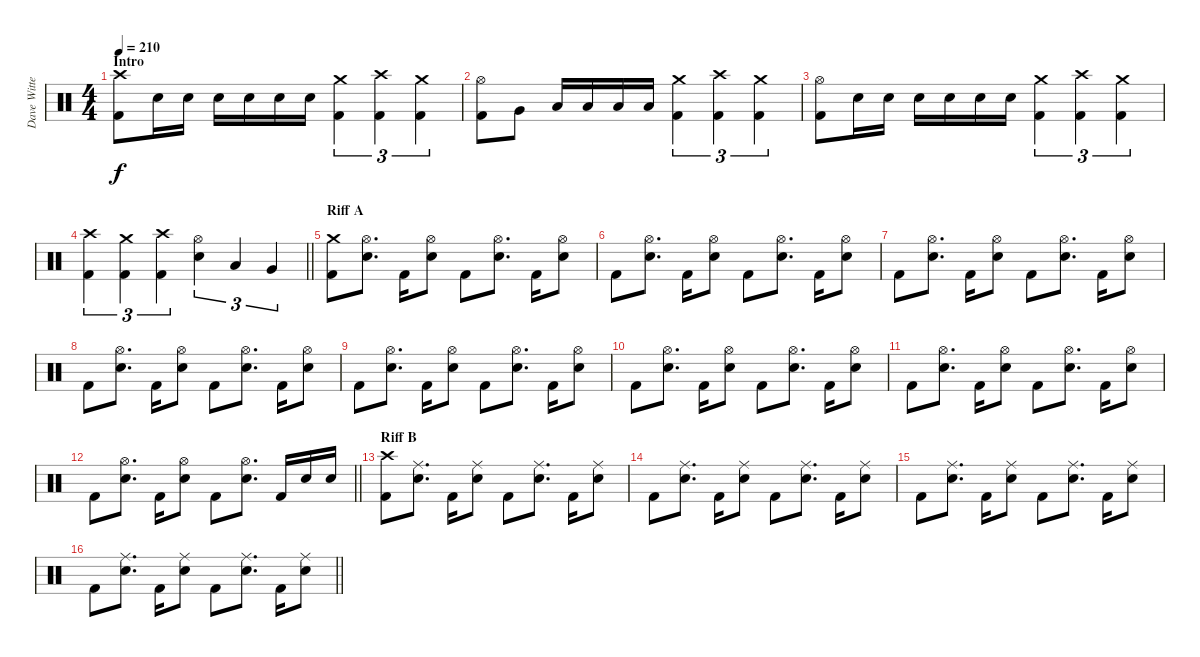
\track ("Dave Witte" "Dave Witte") {instrument percussion}
\staff {score}
\articulation defaults
\ts (4 4)
\section ("" "Intro")
\tempo 210
\clef neutral
\ks c
("Crash high (hit)" "Kick (hit) 2").8{dy f} "Electric Snare (hit)".16 "Electric Snare (hit)".16 "Electric Snare (hit)".16 "Electric Snare (hit)".16 "Electric Snare (hit)".16 "Electric Snare (hit)".16 ("Crash medium (hit)" "Kick (hit) 2").4{tu (3 2)} ("Crash high (hit)" "Kick (hit) 2").4{tu (3 2)} ("Crash medium (hit)" "Kick (hit) 2").4{tu (3 2)} |
("Hi-Hat (open)" "Kick (hit) 2").8 "Very Low Tom (hit)".8 "Low Tom (hit)".16 "Low Tom (hit)".16 "Low Tom (hit)".16 "Low Tom (hit)".16 ("Crash medium (hit)" "Kick (hit) 2").4{tu (3 2)} ("Crash high (hit)" "Kick (hit) 2").4{tu (3 2)} ("Crash medium (hit)" "Kick (hit) 2").4{tu (3 2)} |
("Hi-Hat (open)" "Kick (hit) 2").8 "Electric Snare (hit)".16 "Electric Snare (hit)".16 "Electric Snare (hit)".16 "Electric Snare (hit)".16 "Electric Snare (hit)".16 "Electric Snare (hit)".16 ("Crash medium (hit)" "Kick (hit) 2").4{tu (3 2)} ("Crash high (hit)" "Kick (hit) 2").4{tu (3 2)} ("Crash medium (hit)" "Kick (hit) 2").4{tu (3 2)} |
\barLineRight lightlight
("Crash high (hit)" "Kick (hit) 2").4{tu (3 2)} ("Crash medium (hit)" "Kick (hit) 2").4{tu (3 2)} ("Crash high (hit)" "Kick (hit) 2").4{tu (3 2)} ("Hi-Hat (open)" "Electric Snare (hit)").4{tu (3 2)} "Low Tom (hit)".4{tu (3 2)} "Very Low Tom (hit)".4{tu (3 2)} |
\section ("" "Riff A")
("Crash medium (hit)" "Kick (hit) 2").8 ("Hi-Hat (open)" "Electric Snare (hit)").8{d} "Kick (hit) 2".16 ("Hi-Hat (open)" "Electric Snare (hit)").8 "Kick (hit) 2".8 ("Hi-Hat (open)" "Electric Snare (hit)").8{d} "Kick (hit) 2".16 ("Hi-Hat (open)" "Electric Snare (hit)").8 |
"Kick (hit) 2".8 ("Hi-Hat (open)" "Electric Snare (hit)").8{d} "Kick (hit) 2".16 ("Hi-Hat (open)" "Electric Snare (hit)").8 "Kick (hit) 2".8 ("Hi-Hat (open)" "Electric Snare (hit)").8{d} "Kick (hit) 2".16 ("Hi-Hat (open)" "Electric Snare (hit)").8 |
"Kick (hit) 2".8 ("Hi-Hat (open)" "Electric Snare (hit)").8{d} "Kick (hit) 2".16 ("Hi-Hat (open)" "Electric Snare (hit)").8 "Kick (hit) 2".8 ("Hi-Hat (open)" "Electric Snare (hit)").8{d} "Kick (hit) 2".16 ("Hi-Hat (open)" "Electric Snare (hit)").8 |
"Kick (hit) 2".8 ("Hi-Hat (open)" "Electric Snare (hit)").8{d} "Kick (hit) 2".16 ("Hi-Hat (open)" "Electric Snare (hit)").8 "Kick (hit) 2".8 ("Hi-Hat (open)" "Electric Snare (hit)").8{d} "Kick (hit) 2".16 ("Hi-Hat (open)" "Electric Snare (hit)").8 |
"Kick (hit) 2".8 ("Hi-Hat (open)" "Electric Snare (hit)").8{d} "Kick (hit) 2".16 ("Hi-Hat (open)" "Electric Snare (hit)").8 "Kick (hit) 2".8 ("Hi-Hat (open)" "Electric Snare (hit)").8{d} "Kick (hit) 2".16 ("Hi-Hat (open)" "Electric Snare (hit)").8 |
"Kick (hit) 2".8 ("Hi-Hat (open)" "Electric Snare (hit)").8{d} "Kick (hit) 2".16 ("Hi-Hat (open)" "Electric Snare (hit)").8 "Kick (hit) 2".8 ("Hi-Hat (open)" "Electric Snare (hit)").8{d} "Kick (hit) 2".16 ("Hi-Hat (open)" "Electric Snare (hit)").8 |
"Kick (hit) 2".8 ("Hi-Hat (open)" "Electric Snare (hit)").8{d} "Kick (hit) 2".16 ("Hi-Hat (open)" "Electric Snare (hit)").8 "Kick (hit) 2".8 ("Hi-Hat (open)" "Electric Snare (hit)").8{d} "Kick (hit) 2".16 ("Hi-Hat (open)" "Electric Snare (hit)").8 |
\barLineRight lightlight "Kick (hit) 2".8
("Hi-Hat (open)" "Electric Snare (hit)").8{d} "Kick (hit) 2".16 ("Hi-Hat (open)" "Electric Snare (hit)").8 "Kick (hit) 2".8 ("Hi-Hat (open)" "Electric Snare (hit)").8{d} "Kick (hit) 2".16 "Electric Snare (hit)".16 "Electric Snare (hit)".16 |
\section ("" "Riff B")
("Crash high (hit)" "Kick (hit) 2").8 ("Ride (middle)" "Electric Snare (hit)").8{d} "Kick (hit) 2".16 ("Ride (middle)" "Electric Snare (hit)").8 "Kick (hit) 2".8 ("Ride (middle)" "Electric Snare (hit)").8{d} "Kick (hit) 2".16 ("Ride (middle)" "Electric Snare (hit)").8 |
"Kick (hit) 2".8 ("Ride (middle)" "Electric Snare (hit)").8{d} "Kick (hit) 2".16 ("Ride (middle)" "Electric Snare (hit)").8 "Kick (hit) 2".8 ("Ride (middle)" "Electric Snare (hit)").8{d} "Kick (hit) 2".16 ("Ride (middle)" "Electric Snare (hit)").8 |
"Kick (hit) 2".8 ("Ride (middle)" "Electric Snare (hit)").8{d} "Kick (hit) 2".16 ("Ride (middle)" "Electric Snare (hit)").8 "Kick (hit) 2".8 ("Ride (middle)" "Electric Snare (hit)").8{d} "Kick (hit) 2".16 ("Ride (middle)" "Electric Snare (hit)").8 |
\barLineRight lightlight "Kick (hit) 2".8
("Ride (middle)" "Electric Snare (hit)").8{d} "Kick (hit) 2".16 ("Ride (middle)" "Electric Snare (hit)").8 "Kick (hit) 2".8 ("Ride (middle)" "Electric Snare (hit)").8{d} "Kick (hit) 2".16 ("Ride (middle)" "Electric Snare (hit)").8
